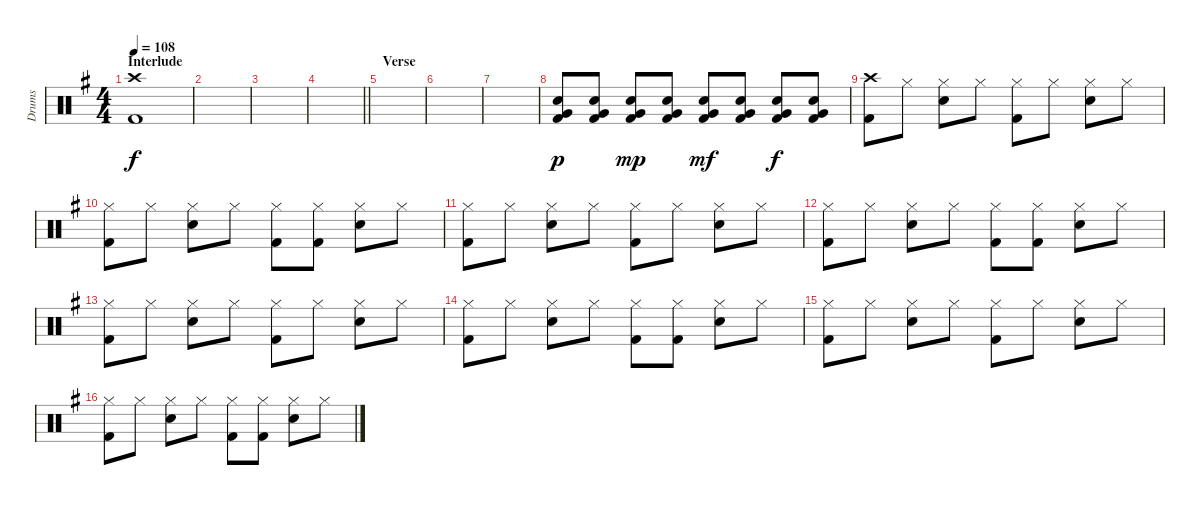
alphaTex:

\track ("Drums" "Drums") {instrument percussion}
\staff {score}
\articulation defaults
\ts (4 4)
\section ("" "Interlude")
\tempo 108
\clef neutral
\ks g
("Crash high (hit)" "Kick (hit) 2").1{dy f} |
|
|
\barLineRight lightlight
|
\section ("" "Verse")
|
|
|
("Electric Snare (hit)" "Kick (hit) 2" "Very Low Tom (hit)").8{dy p} ("Electric Snare (hit)" "Kick (hit) 2" "Very Low Tom (hit)").8 ("Electric Snare (hit)" "Kick (hit) 2" "Very Low Tom (hit)").8{dy mp} ("Electric Snare (hit)" "Kick (hit) 2" "Very Low Tom (hit)").8 ("Electric Snare (hit)" "Kick (hit) 2" "Very Low Tom (hit)").8{dy mf} ("Electric Snare (hit)" "Kick (hit) 2" "Very Low Tom (hit)").8 ("Electric Snare (hit)" "Kick (hit) 2" "Very Low Tom (hit)").8{dy f} ("Electric Snare (hit)" "Kick (hit) 2" "Very Low Tom (hit)").8 |
("Crash high (hit)" "Kick (hit) 2").8 "Hi-Hat (closed)".8 ("Hi-Hat (closed)" "Electric Snare (hit)").8 "Hi-Hat (closed)".8 ("Hi-Hat (closed)" "Kick (hit) 2").8 "Hi-Hat (closed)".8 ("Hi-Hat (closed)" "Electric Snare (hit)").8 "Hi-Hat (closed)".8 |
("Hi-Hat (closed)" "Kick (hit) 2").8 "Hi-Hat (closed)".8 ("Hi-Hat (closed)" "Electric Snare (hit)").8 "Hi-Hat (closed)".8 ("Hi-Hat (closed)" "Kick (hit) 2").8 ("Hi-Hat (closed)" "Kick (hit) 2").8 ("Hi-Hat (closed)" "Electric Snare (hit)").8 "Hi-Hat (closed)".8 |
("Hi-Hat (closed)" "Kick (hit) 2").8 "Hi-Hat (closed)".8 ("Hi-Hat (closed)" "Electric Snare (hit)").8 "Hi-Hat (closed)".8 ("Hi-Hat (closed)" "Kick (hit) 2").8 "Hi-Hat (closed)".8 ("Hi-Hat (closed)" "Electric Snare (hit)").8 "Hi-Hat (closed)".8 |
("Hi-Hat (closed)" "Kick (hit) 2").8 "Hi-Hat (closed)".8 ("Hi-Hat (closed)" "Electric Snare (hit)").8 "Hi-Hat (closed)".8 ("Hi-Hat (closed)" "Kick (hit) 2").8 ("Hi-Hat (closed)" "Kick (hit) 2").8 ("Hi-Hat (closed)" "Electric Snare (hit)").8 "Hi-Hat (closed)".8 |
("Hi-Hat (closed)" "Kick (hit) 2").8 "Hi-Hat (closed)".8 ("Hi-Hat (closed)" "Electric Snare (hit)").8 "Hi-Hat (closed)".8 ("Hi-Hat (closed)" "Kick (hit) 2").8 "Hi-Hat (closed)".8 ("Hi-Hat (closed)" "Electric Snare (hit)").8 "Hi-Hat (closed)".8 |
("Hi-Hat (closed)" "Kick (hit) 2").8 "Hi-Hat (closed)".8 ("Hi-Hat (closed)" "Electric Snare (hit)").8 "Hi-Hat (closed)".8 ("Hi-Hat (closed)" "Kick (hit) 2").8 ("Hi-Hat (closed)" "Kick (hit) 2").8 ("Hi-Hat (closed)" "Electric Snare (hit)").8 "Hi-Hat (closed)".8 |
("Hi-Hat (closed)" "Kick (hit) 2").8 "Hi-Hat (closed)".8 ("Hi-Hat (closed)" "Electric Snare (hit)").8 "Hi-Hat (closed)".8 ("Hi-Hat (closed)" "Kick (hit) 2").8 "Hi-Hat (closed)".8 ("Hi-Hat (closed)" "Electric Snare (hit)").8 "Hi-Hat (closed)".8 |
("Hi-Hat (closed)" "Kick (hit) 2").8 "Hi-Hat (closed)".8 ("Hi-Hat (closed)" "Electric Snare (hit)").8 "Hi-Hat (closed)".8 ("Hi-Hat (closed)" "Kick (hit) 2").8 ("Hi-Hat (closed)" "Kick (hit) 2").8 ("Hi-Hat (closed)" "Electric Snare (hit)").8 "Hi-Hat (closed)".8
